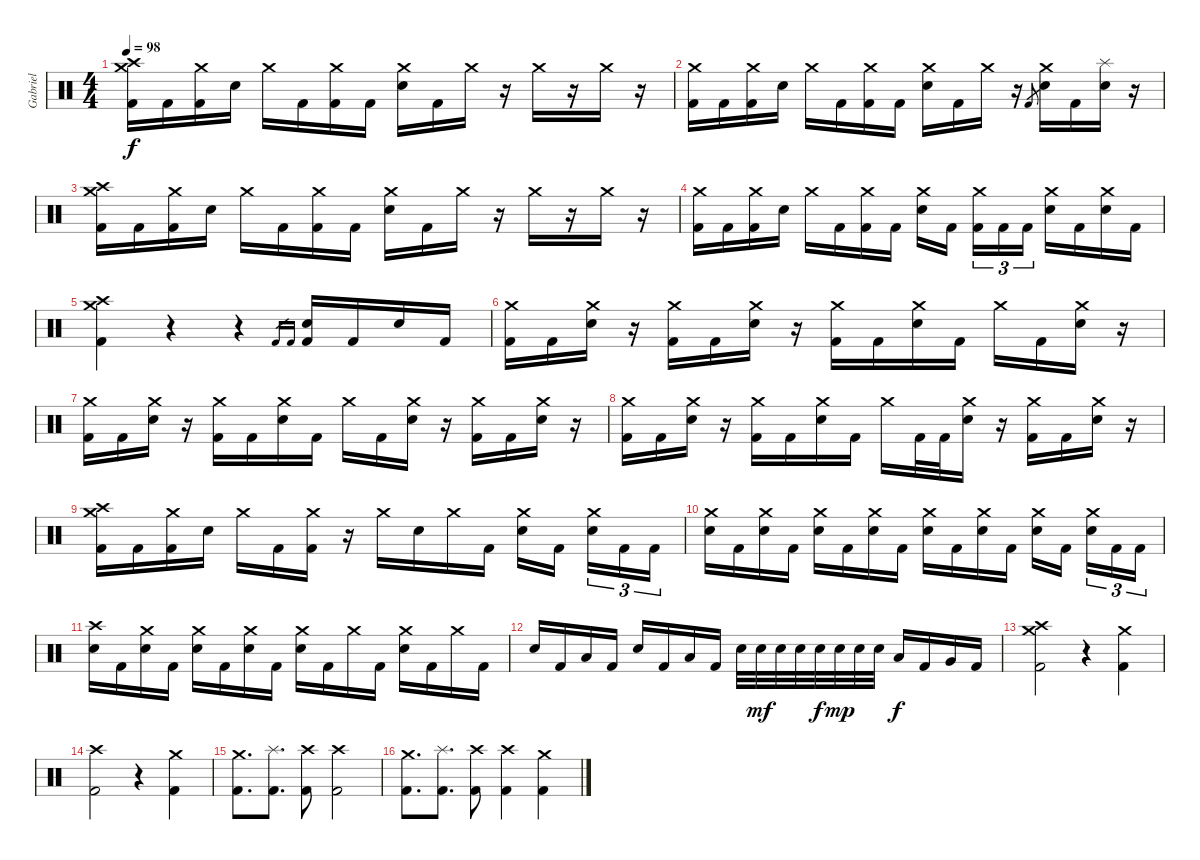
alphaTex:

\track ("Gabriel" "Gabriel") {instrument percussion}
\staff {score}
\articulation defaults
\ts (4 4)
\tempo 98
\clef neutral
\ks c
("Crash medium (hit)" "Crash high (hit)" "Kick (hit) 2").16{dy f} "Kick (hit) 2".16 ("Crash medium (hit)" "Kick (hit) 2").16 "Electric Snare (hit)".16 "Crash medium (hit)".16 "Kick (hit) 2".16 ("Crash medium (hit)" "Kick (hit) 2").16 "Kick (hit) 2".16 ("Crash medium (hit)" "Electric Snare (hit)").16 "Kick (hit) 2".16 "Crash medium (hit)".16 r.16 "Crash medium (hit)".16 r.16 "Crash medium (hit)".16 r.16 |
("Crash medium (hit)" "Kick (hit) 2").16 "Kick (hit) 2".16 ("Crash medium (hit)" "Kick (hit) 2").16 "Electric Snare (hit)".16 "Crash medium (hit)".16 "Kick (hit) 2".16 ("Crash medium (hit)" "Kick (hit) 2").16 "Kick (hit) 2".16 ("Crash medium (hit)" "Electric Snare (hit)").16 "Kick (hit) 2".16 "Crash medium (hit)".16 r.16 "Kick (hit) 2".8{gr} ("Crash medium (hit)" "Electric Snare (hit)").16 "Kick (hit) 2".16 ("Splash (hit)" "Electric Snare (hit)").16 r.16 |
("Crash medium (hit)" "Crash high (hit)" "Kick (hit) 2").16 "Kick (hit) 2".16 ("Crash medium (hit)" "Kick (hit) 2").16 "Electric Snare (hit)".16 "Crash medium (hit)".16 "Kick (hit) 2".16 ("Crash medium (hit)" "Kick (hit) 2").16 "Kick (hit) 2".16 ("Crash medium (hit)" "Electric Snare (hit)").16 "Kick (hit) 2".16 "Crash medium (hit)".16 r.16 "Crash medium (hit)".16 r.16 "Crash medium (hit)".16 r.16 |
("Crash medium (hit)" "Kick (hit) 2").16 "Kick (hit) 2".16 ("Crash medium (hit)" "Kick (hit) 2").16 "Electric Snare (hit)".16 "Crash medium (hit)".16 "Kick (hit) 2".16 ("Crash medium (hit)" "Kick (hit) 2").16 "Kick (hit) 2".16 ("Crash medium (hit)" "Electric Snare (hit)").16 "Kick (hit) 2".16{beam splitsecondary} ("Crash medium (hit)" "Kick (hit) 2").16{tu (3 2)} "Kick (hit) 2".16{tu (3 2)} "Kick (hit) 2".16{tu (3 2)} ("Crash medium (hit)" "Electric Snare (hit)").16 "Kick (hit) 2".16 ("Crash medium (hit)" "Electric Snare (hit)").16 "Kick (hit) 2".16 |
("Crash medium (hit)" "Crash high (hit)" "Kick (hit) 2").4 r.4 r.4 "Kick (hit) 2".16{gr} "Kick (hit) 2".16{gr} ("Electric Snare (hit)" "Kick (hit) 2").16 "Kick (hit) 2".16 "Electric Snare (hit)".16 "Kick (hit) 2".16 |
("Crash medium (hit)" "Kick (hit) 2").16 "Kick (hit) 2".16 ("Crash medium (hit)" "Electric Snare (hit)").16 r.16 ("Crash medium (hit)" "Kick (hit) 2").16 "Kick (hit) 2".16 ("Crash medium (hit)" "Electric Snare (hit)").16 r.16 ("Crash medium (hit)" "Kick (hit) 2").16 "Kick (hit) 2".16 ("Crash medium (hit)" "Electric Snare (hit)").16 "Kick (hit) 2".16 "Crash medium (hit)".16 "Kick (hit) 2".16 ("Crash medium (hit)" "Electric Snare (hit)").16 r.16 |
("Crash medium (hit)" "Kick (hit) 2").16 "Kick (hit) 2".16 ("Crash medium (hit)" "Electric Snare (hit)").16 r.16 ("Crash medium (hit)" "Kick (hit) 2").16 "Kick (hit) 2".16 ("Crash medium (hit)" "Electric Snare (hit)").16 "Kick (hit) 2".16 "Crash medium (hit)".16 "Kick (hit) 2".16 ("Crash medium (hit)" "Electric Snare (hit)").16 r.16 ("Crash medium (hit)" "Kick (hit) 2").16 "Kick (hit) 2".16 ("Crash medium (hit)" "Electric Snare (hit)").16 r.16 |
("Crash medium (hit)" "Kick (hit) 2").16 "Kick (hit) 2".16 ("Crash medium (hit)" "Electric Snare (hit)").16 r.16 ("Crash medium (hit)" "Kick (hit) 2").16 "Kick (hit) 2".16 ("Crash medium (hit)" "Electric Snare (hit)").16 "Kick (hit) 2".16 "Crash medium (hit)".16 "Kick (hit) 2".32 "Kick (hit) 2".32 ("Crash medium (hit)" "Electric Snare (hit)").16 r.16 ("Crash medium (hit)" "Kick (hit) 2").16 "Kick (hit) 2".16 ("Crash medium (hit)" "Electric Snare (hit)").16 r.16 |
("Crash high (hit)" "Crash medium (hit)" "Kick (hit) 2").16 "Kick (hit) 2".16 ("Crash medium (hit)" "Kick (hit) 2").16 "Electric Snare (hit)".16 "Crash medium (hit)".16 "Kick (hit) 2".16 ("Crash medium (hit)" "Kick (hit) 2").16 r.16 "Crash medium (hit)".16 "Electric Snare (hit)".16 "Crash medium (hit)".16 "Kick (hit) 2".16 ("Crash medium (hit)" "Electric Snare (hit)").16 "Kick (hit) 2".16{beam splitsecondary} ("Crash medium (hit)" "Electric Snare (hit)").16{tu (3 2)} "Kick (hit) 2".16{tu (3 2)} "Kick (hit) 2".16{tu (3 2)} |
("Crash medium (hit)" "Electric Snare (hit)").16 "Kick (hit) 2".16 ("Crash medium (hit)" "Electric Snare (hit)").16 "Kick (hit) 2".16 ("Crash medium (hit)" "Electric Snare (hit)").16 "Kick (hit) 2".16 ("Crash medium (hit)" "Electric Snare (hit)").16 "Kick (hit) 2".16 ("Crash medium (hit)" "Electric Snare (hit)").16 "Kick (hit) 2".16 ("Crash medium (hit)" "Electric Snare (hit)").16 "Kick (hit) 2".16 ("Crash medium (hit)" "Electric Snare (hit)").16 "Kick (hit) 2".16{beam splitsecondary} ("Crash medium (hit)" "Electric Snare (hit)").16{tu (3 2)} "Kick (hit) 2".16{tu (3 2)} "Kick (hit) 2".16{tu (3 2)} |
("Crash high (hit)" "Electric Snare (hit)").16 "Kick (hit) 2".16 ("Crash medium (hit)" "Electric Snare (hit)").16 "Kick (hit) 2".16 ("Crash medium (hit)" "Electric Snare (hit)").16 "Kick (hit) 2".16 ("Crash medium (hit)" "Electric Snare (hit)").16 "Kick (hit) 2".16 ("Crash medium (hit)" "Electric Snare (hit)").16 "Kick (hit) 2".16 "Crash medium (hit)".16 "Kick (hit) 2".16 ("Crash medium (hit)" "Electric Snare (hit)").16 "Kick (hit) 2".16 "Crash medium (hit)".16 "Kick (hit) 2".16 |
"Electric Snare (hit)".16 "Kick (hit) 2".16 "Low Tom (hit)".16 "Kick (hit) 2".16 "Electric Snare (hit)".16 "Kick (hit) 2".16 "Low Tom (hit)".16 "Kick (hit) 2".16 "Electric Snare (hit)".32 "Electric Snare (hit)".32{dy mf} "Electric Snare (hit)".32 "Electric Snare (hit)".32 "Electric Snare (hit)".32{dy f} "Electric Snare (hit)".32{dy mp} "Electric Snare (hit)".32 "Electric Snare (hit)".32 "Low Tom (hit)".16{dy f} "Kick (hit) 2".16 "Very Low Tom (hit)".16 "Kick (hit) 2".16 |
("Crash high (hit)" "Crash medium (hit)" "Kick (hit) 2").2 r.4 ("Crash medium (hit)" "Kick (hit) 2").4 |
("Crash high (hit)" "Kick (hit) 2").2 r.4 ("Crash medium (hit)" "Kick (hit) 2").4 |
("Crash medium (hit)" "Kick (hit) 2").8{d} ("Splash (hit)" "Kick (hit) 2").8{d} ("Crash high (hit)" "Kick (hit) 2").8 ("Crash high (hit)" "Kick (hit) 2").2 |
("Crash medium (hit)" "Kick (hit) 2").8{d} ("Splash (hit)" "Kick (hit) 2").8{d} ("Crash high (hit)" "Kick (hit) 2").8 ("Crash high (hit)" "Kick (hit) 2").4 ("Crash medium (hit)" "Kick (hit) 2").4
